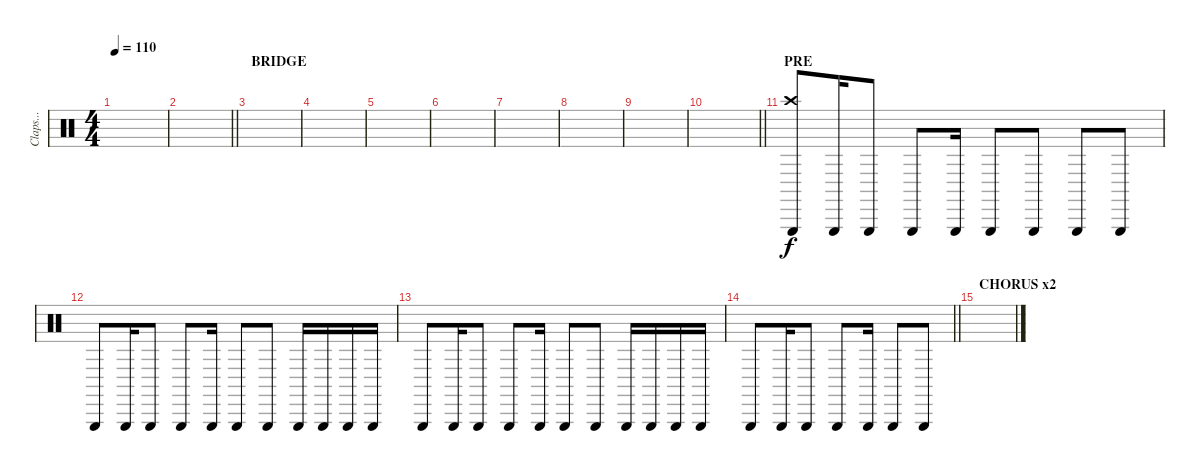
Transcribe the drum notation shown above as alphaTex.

\track ("Claps..." "Claps...") {instrument percussion}
\staff {score}
\articulation defaults
\ts (4 4)
\tempo 110
\clef neutral
\ks c
|
\barLineRight lightlight
|
\section ("" "BRIDGE")
|
|
|
|
|
|
|
\barLineRight lightlight
|
\section ("" "PRE")
("Triangle (hit)" "Crash high (hit)").8 "Triangle (hit)".16 "Triangle (hit)".8 "Triangle (hit)".8 "Triangle (hit)".16 "Triangle (hit)".8 "Triangle (hit)".8 "Triangle (hit)".8 "Triangle (hit)".8 |
"Triangle (hit)".8 "Triangle (hit)".16 "Triangle (hit)".8 "Triangle (hit)".8 "Triangle (hit)".16 "Triangle (hit)".8 "Triangle (hit)".8 "Triangle (hit)".16 "Triangle (hit)".16 "Triangle (hit)".16 "Triangle (hit)".16 |
"Triangle (hit)".8 "Triangle (hit)".16 "Triangle (hit)".8 "Triangle (hit)".8 "Triangle (hit)".16 "Triangle (hit)".8 "Triangle (hit)".8 "Triangle (hit)".16 "Triangle (hit)".16 "Triangle (hit)".16 "Triangle (hit)".16 |
\barLineRight lightlight "Triangle (hit)".8 "Triangle (hit)".16 "Triangle (hit)".8 "Triangle (hit)".8 "Triangle (hit)".16 "Triangle (hit)".8 "Triangle (hit)".8
|
\section ("" "CHORUS x2")
